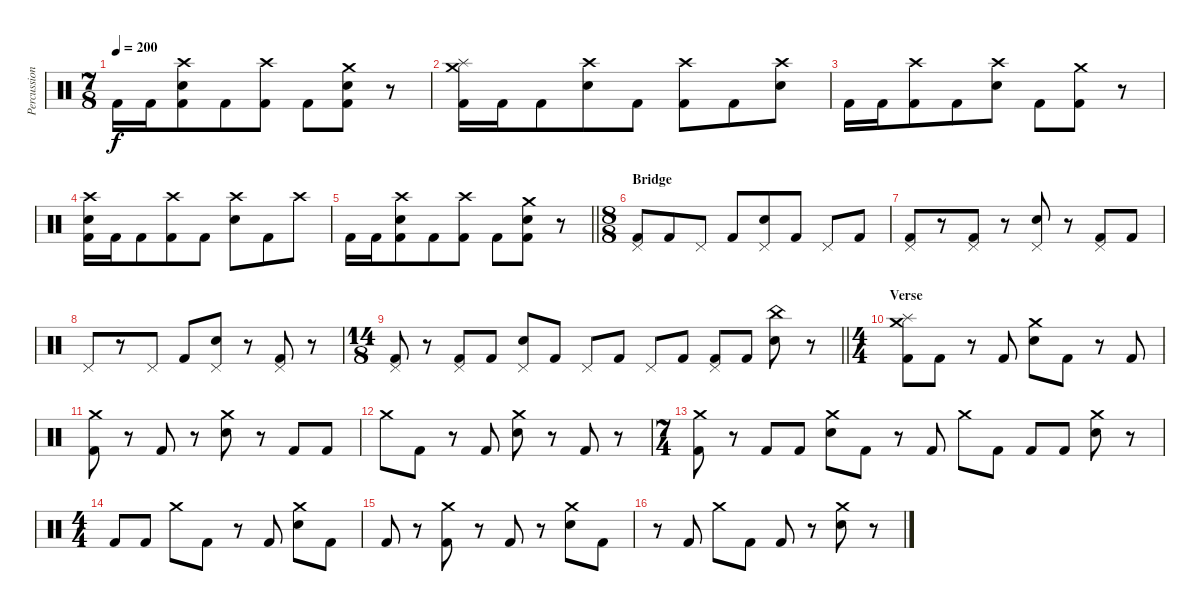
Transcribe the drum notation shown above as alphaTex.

\track ("Percussions" "Percussion") {instrument percussion}
\staff {score}
\articulation defaults
\ts (7 8)
\tempo 200
\clef neutral
\ks c "Kick (hit) 2".16{dy f} "Kick (hit) 2".16
("Crash high (hit)" "Electric Snare (hit)" "Kick (hit) 2").8 "Kick (hit) 2".8 ("Crash high (hit)" "Kick (hit) 2").8 "Kick (hit) 2".8 ("Crash medium (hit)" "Electric Snare (hit)" "Kick (hit) 2").8 r.8 |
("Splash (hit)" "Crash medium (hit)" "Kick (hit) 2").16 "Kick (hit) 2".16 "Kick (hit) 2".8 ("Crash high (hit)" "Electric Snare (hit)").8 "Kick (hit) 2".8 ("Crash high (hit)" "Kick (hit) 2").8 "Kick (hit) 2".8 ("Crash high (hit)" "Electric Snare (hit)").8 |
"Kick (hit) 2".16 "Kick (hit) 2".16 ("Crash high (hit)" "Kick (hit) 2").8 "Kick (hit) 2".8 ("Crash high (hit)" "Electric Snare (hit)").8 "Kick (hit) 2".8 ("Crash medium (hit)" "Kick (hit) 2").8 r.8 |
("Crash high (hit)" "Electric Snare (hit)" "Kick (hit) 2").16 "Kick (hit) 2".16 "Kick (hit) 2".8 ("Crash high (hit)" "Kick (hit) 2").8 "Kick (hit) 2".8 ("Crash high (hit)" "Electric Snare (hit)").8 "Kick (hit) 2".8 "Crash high (hit)".8 |
\barLineRight lightlight "Kick (hit) 2".16 "Kick (hit) 2".16
("Crash high (hit)" "Electric Snare (hit)" "Kick (hit) 2").8 "Kick (hit) 2".8 ("Crash high (hit)" "Kick (hit) 2").8 "Kick (hit) 2".8 ("Crash medium (hit)" "Electric Snare (hit)" "Kick (hit) 2").8 r.8 |
\ts (8 8)
\section ("" "Bridge")
("Pedal Hi-Hat (hit)" "Kick (hit) 2").8 "Kick (hit) 2".8 "Pedal Hi-Hat (hit)".8 "Kick (hit) 2".8 ("Pedal Hi-Hat (hit)" "Electric Snare (hit)").8 "Kick (hit) 2".8 "Pedal Hi-Hat (hit)".8 "Kick (hit) 2".8 |
("Pedal Hi-Hat (hit)" "Kick (hit) 2").8 r.8 ("Pedal Hi-Hat (hit)" "Kick (hit) 2").8 r.8 ("Pedal Hi-Hat (hit)" "Electric Snare (hit)").8 r.8 ("Pedal Hi-Hat (hit)" "Kick (hit) 2").8 "Kick (hit) 2".8 |
"Pedal Hi-Hat (hit)".8 r.8 "Pedal Hi-Hat (hit)".8 "Kick (hit) 2".8 ("Pedal Hi-Hat (hit)" "Electric Snare (hit)").8 r.8 ("Pedal Hi-Hat (hit)" "Kick (hit) 2").8 r.8 |
\ts (14 8)
\barLineRight lightlight
("Pedal Hi-Hat (hit)" "Kick (hit) 2").8 r.8 ("Pedal Hi-Hat (hit)" "Kick (hit) 2").8 "Kick (hit) 2".8 ("Pedal Hi-Hat (hit)" "Electric Snare (hit)").8 "Kick (hit) 2".8 "Pedal Hi-Hat (hit)".8 "Kick (hit) 2".8 "Pedal Hi-Hat (hit)".8 "Kick (hit) 2".8 ("Pedal Hi-Hat (hit)" "Kick (hit) 2").8 "Kick (hit) 2".8 ("China (hit)" "Electric Snare (hit)").8 r.8 |
\ts (4 4)
\section ("" "Verse")
("Crash medium (hit)" "Splash (hit)" "Kick (hit) 2").8 "Kick (hit) 2".8 r.8 "Kick (hit) 2".8 ("Crash medium (hit)" "Electric Snare (hit)").8 "Kick (hit) 2".8 r.8 "Kick (hit) 2".8 |
("Crash medium (hit)" "Kick (hit) 2").8 r.8 "Kick (hit) 2".8 r.8 ("Crash medium (hit)" "Electric Snare (hit)").8 r.8 "Kick (hit) 2".8 "Kick (hit) 2".8 |
"Crash medium (hit)".8 "Kick (hit) 2".8 r.8 "Kick (hit) 2".8 ("Crash medium (hit)" "Electric Snare (hit)").8 r.8 "Kick (hit) 2".8 r.8 |
\ts (7 4)
("Crash medium (hit)" "Kick (hit) 2").8 r.8 "Kick (hit) 2".8 "Kick (hit) 2".8 ("Crash medium (hit)" "Electric Snare (hit)").8 "Kick (hit) 2".8 r.8 "Kick (hit) 2".8 "Crash medium (hit)".8 "Kick (hit) 2".8 "Kick (hit) 2".8 "Kick (hit) 2".8 ("Crash medium (hit)" "Electric Snare (hit)").8 r.8 |
\ts (4 4)
"Kick (hit) 2".8 "Kick (hit) 2".8 "Crash medium (hit)".8 "Kick (hit) 2".8 r.8 "Kick (hit) 2".8 ("Crash medium (hit)" "Electric Snare (hit)").8 "Kick (hit) 2".8 |
"Kick (hit) 2".8 r.8 ("Crash medium (hit)" "Kick (hit) 2").8 r.8 "Kick (hit) 2".8 r.8 ("Crash medium (hit)" "Electric Snare (hit)").8 "Kick (hit) 2".8 |
r.8 "Kick (hit) 2".8 "Crash medium (hit)".8 "Kick (hit) 2".8 "Kick (hit) 2".8 r.8 ("Crash medium (hit)" "Electric Snare (hit)").8 r.8
